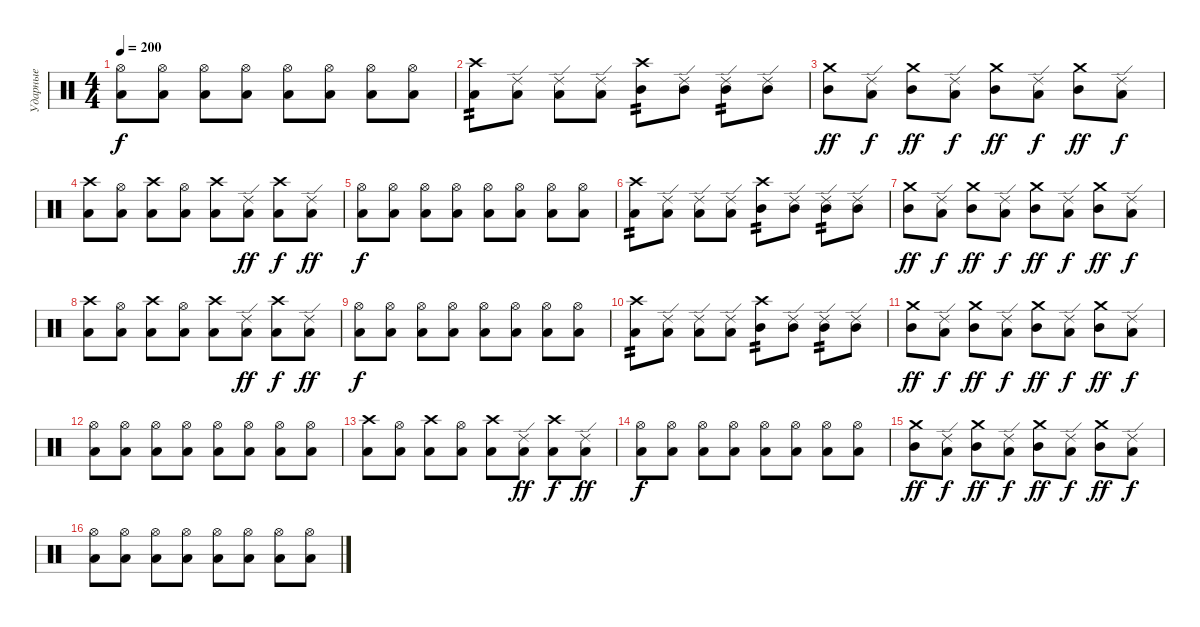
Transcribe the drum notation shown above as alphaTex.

\track ("Ударные" "Ударные") {instrument percussion}
\staff {score}
\articulation defaults
\ts (4 4)
\tempo 200
\clef neutral
\ks c
("Hi-Hat (open)" "Low Tom (hit)").8{dy f} ("Hi-Hat (open)" "Low Tom (hit)").8 ("Hi-Hat (open)" "Low Tom (hit)").8 ("Hi-Hat (open)" "Low Tom (hit)").8 ("Hi-Hat (open)" "Low Tom (hit)").8 ("Hi-Hat (open)" "Low Tom (hit)").8 ("Hi-Hat (open)" "Low Tom (hit)").8 ("Hi-Hat (open)" "Low Tom (hit)").8 |
("Crash high (hit)" "Low Tom (hit)").8{tp 2} ("Ride (edge) 2" "Low Tom (hit)").8 ("Ride (edge) 2" "Low Tom (hit)").8 ("Ride (edge) 2" "Low Tom (hit)").8 ("Crash high (hit)" "Mid Tom (hit)").8{tp 2} ("Ride (edge) 2" "Mid Tom (hit)").8 ("Ride (edge) 2" "Mid Tom (hit)").8{tp 2} ("Ride (edge) 2" "Mid Tom (hit)").8 |
("Crash medium (hit)" "Mid Tom (hit)").8{dy ff} ("Ride (edge) 2" "Low Tom (hit)").8{dy f} ("Crash medium (hit)" "Mid Tom (hit)").8{dy ff} ("Ride (edge) 2" "Low Tom (hit)").8{dy f} ("Crash medium (hit)" "Mid Tom (hit)").8{dy ff} ("Ride (edge) 2" "Low Tom (hit)").8{dy f} ("Crash medium (hit)" "Mid Tom (hit)").8{dy ff} ("Ride (edge) 2" "Low Tom (hit)").8{dy f} |
("Crash high (hit)" "Low Tom (hit)").8 ("Hi-Hat (open)" "Low Floor Tom (hit)").8 ("Crash high (hit)" "Low Tom (hit)").8 ("Hi-Hat (open)" "Low Floor Tom (hit)").8 ("Crash high (hit)" "Low Tom (hit)").8 ("Ride (edge) 2" "Low Floor Tom (hit)").8{dy ff} ("Crash high (hit)" "Low Tom (hit)").8{dy f} ("Ride (edge) 2" "Low Floor Tom (hit)").8{dy ff} |
("Hi-Hat (open)" "Low Tom (hit)").8{dy f} ("Hi-Hat (open)" "Low Tom (hit)").8 ("Hi-Hat (open)" "Low Tom (hit)").8 ("Hi-Hat (open)" "Low Tom (hit)").8 ("Hi-Hat (open)" "Low Tom (hit)").8 ("Hi-Hat (open)" "Low Tom (hit)").8 ("Hi-Hat (open)" "Low Tom (hit)").8 ("Hi-Hat (open)" "Low Tom (hit)").8 |
("Crash high (hit)" "Low Tom (hit)").8{tp 2} ("Ride (edge) 2" "Low Tom (hit)").8 ("Ride (edge) 2" "Low Tom (hit)").8 ("Ride (edge) 2" "Low Tom (hit)").8 ("Crash high (hit)" "Mid Tom (hit)").8{tp 2} ("Ride (edge) 2" "Mid Tom (hit)").8 ("Ride (edge) 2" "Mid Tom (hit)").8{tp 2} ("Ride (edge) 2" "Mid Tom (hit)").8 |
("Crash medium (hit)" "Mid Tom (hit)").8{dy ff} ("Ride (edge) 2" "Low Tom (hit)").8{dy f} ("Crash medium (hit)" "Mid Tom (hit)").8{dy ff} ("Ride (edge) 2" "Low Tom (hit)").8{dy f} ("Crash medium (hit)" "Mid Tom (hit)").8{dy ff} ("Ride (edge) 2" "Low Tom (hit)").8{dy f} ("Crash medium (hit)" "Mid Tom (hit)").8{dy ff} ("Ride (edge) 2" "Low Tom (hit)").8{dy f} |
("Crash high (hit)" "Low Tom (hit)").8 ("Hi-Hat (open)" "Low Floor Tom (hit)").8 ("Crash high (hit)" "Low Tom (hit)").8 ("Hi-Hat (open)" "Low Floor Tom (hit)").8 ("Crash high (hit)" "Low Tom (hit)").8 ("Ride (edge) 2" "Low Floor Tom (hit)").8{dy ff} ("Crash high (hit)" "Low Tom (hit)").8{dy f} ("Ride (edge) 2" "Low Floor Tom (hit)").8{dy ff} |
("Hi-Hat (open)" "Low Tom (hit)").8{dy f} ("Hi-Hat (open)" "Low Tom (hit)").8 ("Hi-Hat (open)" "Low Tom (hit)").8 ("Hi-Hat (open)" "Low Tom (hit)").8 ("Hi-Hat (open)" "Low Tom (hit)").8 ("Hi-Hat (open)" "Low Tom (hit)").8 ("Hi-Hat (open)" "Low Tom (hit)").8 ("Hi-Hat (open)" "Low Tom (hit)").8 |
("Crash high (hit)" "Low Tom (hit)").8{tp 2} ("Ride (edge) 2" "Low Tom (hit)").8 ("Ride (edge) 2" "Low Tom (hit)").8 ("Ride (edge) 2" "Low Tom (hit)").8 ("Crash high (hit)" "Mid Tom (hit)").8{tp 2} ("Ride (edge) 2" "Mid Tom (hit)").8 ("Ride (edge) 2" "Mid Tom (hit)").8{tp 2} ("Ride (edge) 2" "Mid Tom (hit)").8 |
("Crash medium (hit)" "Mid Tom (hit)").8{dy ff} ("Ride (edge) 2" "Low Tom (hit)").8{dy f} ("Crash medium (hit)" "Mid Tom (hit)").8{dy ff} ("Ride (edge) 2" "Low Tom (hit)").8{dy f} ("Crash medium (hit)" "Mid Tom (hit)").8{dy ff} ("Ride (edge) 2" "Low Tom (hit)").8{dy f} ("Crash medium (hit)" "Mid Tom (hit)").8{dy ff} ("Ride (edge) 2" "Low Tom (hit)").8{dy f} |
("Hi-Hat (open)" "Low Tom (hit)").8 ("Hi-Hat (open)" "Low Tom (hit)").8 ("Hi-Hat (open)" "Low Tom (hit)").8 ("Hi-Hat (open)" "Low Tom (hit)").8 ("Hi-Hat (open)" "Low Tom (hit)").8 ("Hi-Hat (open)" "Low Tom (hit)").8 ("Hi-Hat (open)" "Low Tom (hit)").8 ("Hi-Hat (open)" "Low Tom (hit)").8 |
("Crash high (hit)" "Low Tom (hit)").8 ("Hi-Hat (open)" "Low Floor Tom (hit)").8 ("Crash high (hit)" "Low Tom (hit)").8 ("Hi-Hat (open)" "Low Floor Tom (hit)").8 ("Crash high (hit)" "Low Tom (hit)").8 ("Ride (edge) 2" "Low Floor Tom (hit)").8{dy ff} ("Crash high (hit)" "Low Tom (hit)").8{dy f} ("Ride (edge) 2" "Low Floor Tom (hit)").8{dy ff} |
("Hi-Hat (open)" "Low Tom (hit)").8{dy f} ("Hi-Hat (open)" "Low Tom (hit)").8 ("Hi-Hat (open)" "Low Tom (hit)").8 ("Hi-Hat (open)" "Low Tom (hit)").8 ("Hi-Hat (open)" "Low Tom (hit)").8 ("Hi-Hat (open)" "Low Tom (hit)").8 ("Hi-Hat (open)" "Low Tom (hit)").8 ("Hi-Hat (open)" "Low Tom (hit)").8 |
("Crash medium (hit)" "Mid Tom (hit)").8{dy ff} ("Ride (edge) 2" "Low Tom (hit)").8{dy f} ("Crash medium (hit)" "Mid Tom (hit)").8{dy ff} ("Ride (edge) 2" "Low Tom (hit)").8{dy f} ("Crash medium (hit)" "Mid Tom (hit)").8{dy ff} ("Ride (edge) 2" "Low Tom (hit)").8{dy f} ("Crash medium (hit)" "Mid Tom (hit)").8{dy ff} ("Ride (edge) 2" "Low Tom (hit)").8{dy f} |
("Hi-Hat (open)" "Low Tom (hit)").8 ("Hi-Hat (open)" "Low Tom (hit)").8 ("Hi-Hat (open)" "Low Tom (hit)").8 ("Hi-Hat (open)" "Low Tom (hit)").8 ("Hi-Hat (open)" "Low Tom (hit)").8 ("Hi-Hat (open)" "Low Tom (hit)").8 ("Hi-Hat (open)" "Low Tom (hit)").8 ("Hi-Hat (open)" "Low Tom (hit)").8
